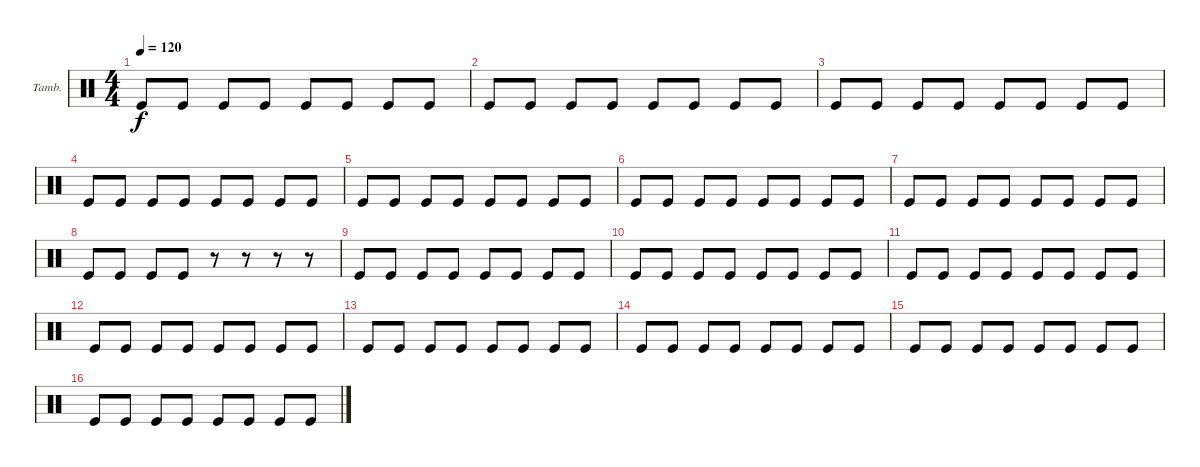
\bracketExtendMode groupsimilarinstruments
\firstSystemTrackNameOrientation horizontal
\otherSystemsTrackNameOrientation horizontal
\track ("Tambourine" "Tamb.") {instrument percussion}
\staff {score}
\articulation defaults
\ts (4 4)
\tempo 120
\clef neutral
\ks c "Kick (hit)".8{dy f} "Kick (hit)".8 "Kick (hit)".8 "Kick (hit)".8 "Kick (hit)".8 "Kick (hit)".8 "Kick (hit)".8 "Kick (hit)".8
|
"Kick (hit)".8 "Kick (hit)".8 "Kick (hit)".8 "Kick (hit)".8 "Kick (hit)".8 "Kick (hit)".8 "Kick (hit)".8 "Kick (hit)".8 |
"Kick (hit)".8 "Kick (hit)".8 "Kick (hit)".8 "Kick (hit)".8 "Kick (hit)".8 "Kick (hit)".8 "Kick (hit)".8 "Kick (hit)".8 |
"Kick (hit)".8 "Kick (hit)".8 "Kick (hit)".8 "Kick (hit)".8 "Kick (hit)".8 "Kick (hit)".8 "Kick (hit)".8 "Kick (hit)".8 |
"Kick (hit)".8 "Kick (hit)".8 "Kick (hit)".8 "Kick (hit)".8 "Kick (hit)".8 "Kick (hit)".8 "Kick (hit)".8 "Kick (hit)".8 |
"Kick (hit)".8 "Kick (hit)".8 "Kick (hit)".8 "Kick (hit)".8 "Kick (hit)".8 "Kick (hit)".8 "Kick (hit)".8 "Kick (hit)".8 |
"Kick (hit)".8 "Kick (hit)".8 "Kick (hit)".8 "Kick (hit)".8 "Kick (hit)".8 "Kick (hit)".8 "Kick (hit)".8 "Kick (hit)".8 |
"Kick (hit)".8 "Kick (hit)".8 "Kick (hit)".8 "Kick (hit)".8 r.8 r.8 r.8 r.8 |
"Kick (hit)".8 "Kick (hit)".8 "Kick (hit)".8 "Kick (hit)".8 "Kick (hit)".8 "Kick (hit)".8 "Kick (hit)".8 "Kick (hit)".8 |
"Kick (hit)".8 "Kick (hit)".8 "Kick (hit)".8 "Kick (hit)".8 "Kick (hit)".8 "Kick (hit)".8 "Kick (hit)".8 "Kick (hit)".8 |
"Kick (hit)".8 "Kick (hit)".8 "Kick (hit)".8 "Kick (hit)".8 "Kick (hit)".8 "Kick (hit)".8 "Kick (hit)".8 "Kick (hit)".8 |
"Kick (hit)".8 "Kick (hit)".8 "Kick (hit)".8 "Kick (hit)".8 "Kick (hit)".8 "Kick (hit)".8 "Kick (hit)".8 "Kick (hit)".8 |
"Kick (hit)".8 "Kick (hit)".8 "Kick (hit)".8 "Kick (hit)".8 "Kick (hit)".8 "Kick (hit)".8 "Kick (hit)".8 "Kick (hit)".8 |
"Kick (hit)".8 "Kick (hit)".8 "Kick (hit)".8 "Kick (hit)".8 "Kick (hit)".8 "Kick (hit)".8 "Kick (hit)".8 "Kick (hit)".8 |
"Kick (hit)".8 "Kick (hit)".8 "Kick (hit)".8 "Kick (hit)".8 "Kick (hit)".8 "Kick (hit)".8 "Kick (hit)".8 "Kick (hit)".8 |
"Kick (hit)".8 "Kick (hit)".8 "Kick (hit)".8 "Kick (hit)".8 "Kick (hit)".8 "Kick (hit)".8 "Kick (hit)".8 "Kick (hit)".8
